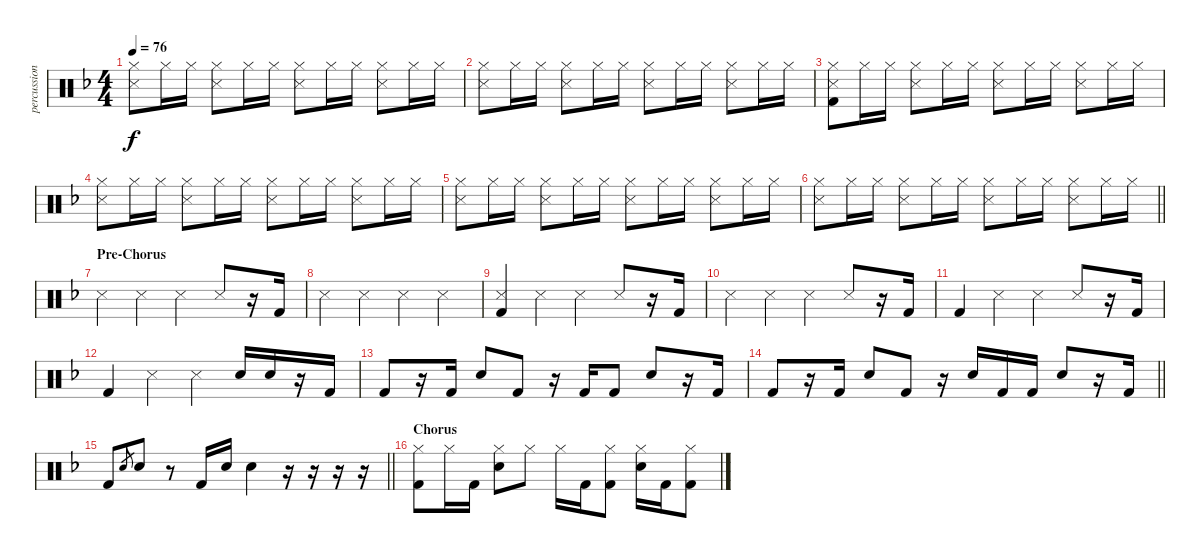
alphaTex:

\track ("percussion" "percussion") {instrument percussion}
\staff {score}
\articulation defaults
\ts (4 4)
\tempo 76
\clef neutral
\ks f
("Snare (side stick) 3" "Hi-Hat (closed)").8{dy f} "Hi-Hat (closed)".16 "Hi-Hat (closed)".16 ("Snare (side stick) 3" "Hi-Hat (closed)").8 "Hi-Hat (closed)".16 "Hi-Hat (closed)".16 ("Snare (side stick) 3" "Hi-Hat (closed)").8 "Hi-Hat (closed)".16 "Hi-Hat (closed)".16 ("Snare (side stick) 3" "Hi-Hat (closed)").8 "Hi-Hat (closed)".16 "Hi-Hat (closed)".16 |
("Snare (side stick) 3" "Hi-Hat (closed)").8 "Hi-Hat (closed)".16 "Hi-Hat (closed)".16 ("Snare (side stick) 3" "Hi-Hat (closed)").8 "Hi-Hat (closed)".16 "Hi-Hat (closed)".16 ("Snare (side stick) 3" "Hi-Hat (closed)").8 "Hi-Hat (closed)".16 "Hi-Hat (closed)".16 ("Snare (side stick) 3" "Hi-Hat (closed)").8 "Hi-Hat (closed)".16 "Hi-Hat (closed)".16 |
("Snare (side stick) 3" "Hi-Hat (closed)" "Kick (hit) 2").8 "Hi-Hat (closed)".16 "Hi-Hat (closed)".16 ("Snare (side stick) 3" "Hi-Hat (closed)").8 "Hi-Hat (closed)".16 "Hi-Hat (closed)".16 ("Snare (side stick) 3" "Hi-Hat (closed)").8 "Hi-Hat (closed)".16 "Hi-Hat (closed)".16 ("Snare (side stick) 3" "Hi-Hat (closed)").8 "Hi-Hat (closed)".16 "Hi-Hat (closed)".16 |
("Snare (side stick) 3" "Hi-Hat (closed)").8 "Hi-Hat (closed)".16 "Hi-Hat (closed)".16 ("Snare (side stick) 3" "Hi-Hat (closed)").8 "Hi-Hat (closed)".16 "Hi-Hat (closed)".16 ("Snare (side stick) 3" "Hi-Hat (closed)").8 "Hi-Hat (closed)".16 "Hi-Hat (closed)".16 ("Snare (side stick) 3" "Hi-Hat (closed)").8 "Hi-Hat (closed)".16 "Hi-Hat (closed)".16 |
("Snare (side stick) 3" "Hi-Hat (closed)").8 "Hi-Hat (closed)".16 "Hi-Hat (closed)".16 ("Snare (side stick) 3" "Hi-Hat (closed)").8 "Hi-Hat (closed)".16 "Hi-Hat (closed)".16 ("Snare (side stick) 3" "Hi-Hat (closed)").8 "Hi-Hat (closed)".16 "Hi-Hat (closed)".16 ("Snare (side stick) 3" "Hi-Hat (closed)").8 "Hi-Hat (closed)".16 "Hi-Hat (closed)".16 |
\barLineRight lightlight
("Snare (side stick) 3" "Hi-Hat (closed)").8 "Hi-Hat (closed)".16 "Hi-Hat (closed)".16 ("Snare (side stick) 3" "Hi-Hat (closed)").8 "Hi-Hat (closed)".16 "Hi-Hat (closed)".16 ("Snare (side stick) 3" "Hi-Hat (closed)").8 "Hi-Hat (closed)".16 "Hi-Hat (closed)".16 ("Snare (side stick) 3" "Hi-Hat (closed)").8 "Hi-Hat (closed)".16 "Hi-Hat (closed)".16 |
\section ("" "Pre-Chorus")
"Snare (side stick) 3".4 "Snare (side stick) 3".4 "Snare (side stick) 3".4 "Snare (side stick) 3".8 r.16 "Kick (hit) 2".16 |
"Snare (side stick) 3".4 "Snare (side stick) 3".4 "Snare (side stick) 3".4 "Snare (side stick) 3".4 |
("Snare (side stick) 3" "Kick (hit) 2").4 "Snare (side stick) 3".4 "Snare (side stick) 3".4 "Snare (side stick) 3".8 r.16 "Kick (hit) 2".16 |
"Snare (side stick) 3".4 "Snare (side stick) 3".4 "Snare (side stick) 3".4 "Snare (side stick) 3".8 r.16 "Kick (hit) 2".16 |
"Kick (hit) 2".4 "Snare (side stick) 3".4 "Snare (side stick) 3".4 "Snare (side stick) 3".8 r.16 "Kick (hit) 2".16 |
"Kick (hit) 2".4 "Snare (side stick) 3".4 "Snare (side stick) 3".4 "Electric Snare (hit)".16 "Electric Snare (hit)".16 r.16 "Kick (hit) 2".16 |
"Kick (hit) 2".8 r.16 "Kick (hit) 2".16 "Electric Snare (hit)".8 "Kick (hit) 2".8 r.16 "Kick (hit) 2".16 "Kick (hit) 2".8 "Electric Snare (hit)".8 r.16 "Kick (hit) 2".16 |
\barLineRight lightlight "Kick (hit) 2".8
r.16 "Kick (hit) 2".16 "Electric Snare (hit)".8 "Kick (hit) 2".8 r.16 "Electric Snare (hit)".16 "Kick (hit) 2".16 "Kick (hit) 2".16 "Electric Snare (hit)".8 r.16 "Kick (hit) 2".16 |
\barLineRight lightlight "Kick (hit) 2".8 "Electric Snare (hit)".8{gr} "Electric Snare (hit)".8
r.8 "Kick (hit) 2".16 "Electric Snare (hit)".16 "Electric Snare (hit)".4 r.16 r.16 r.16 r.16 |
\section ("" "Chorus")
("Hi-Hat (closed)" "Kick (hit) 2").8 "Hi-Hat (closed)".16 "Kick (hit) 2".16 ("Electric Snare (hit)" "Hi-Hat (closed)").8 "Hi-Hat (closed)".8 "Hi-Hat (closed)".16 "Kick (hit) 2".16 ("Hi-Hat (closed)" "Kick (hit) 2").8 ("Electric Snare (hit)" "Hi-Hat (closed)").16 "Kick (hit) 2".16 ("Hi-Hat (closed)" "Kick (hit) 2").8
